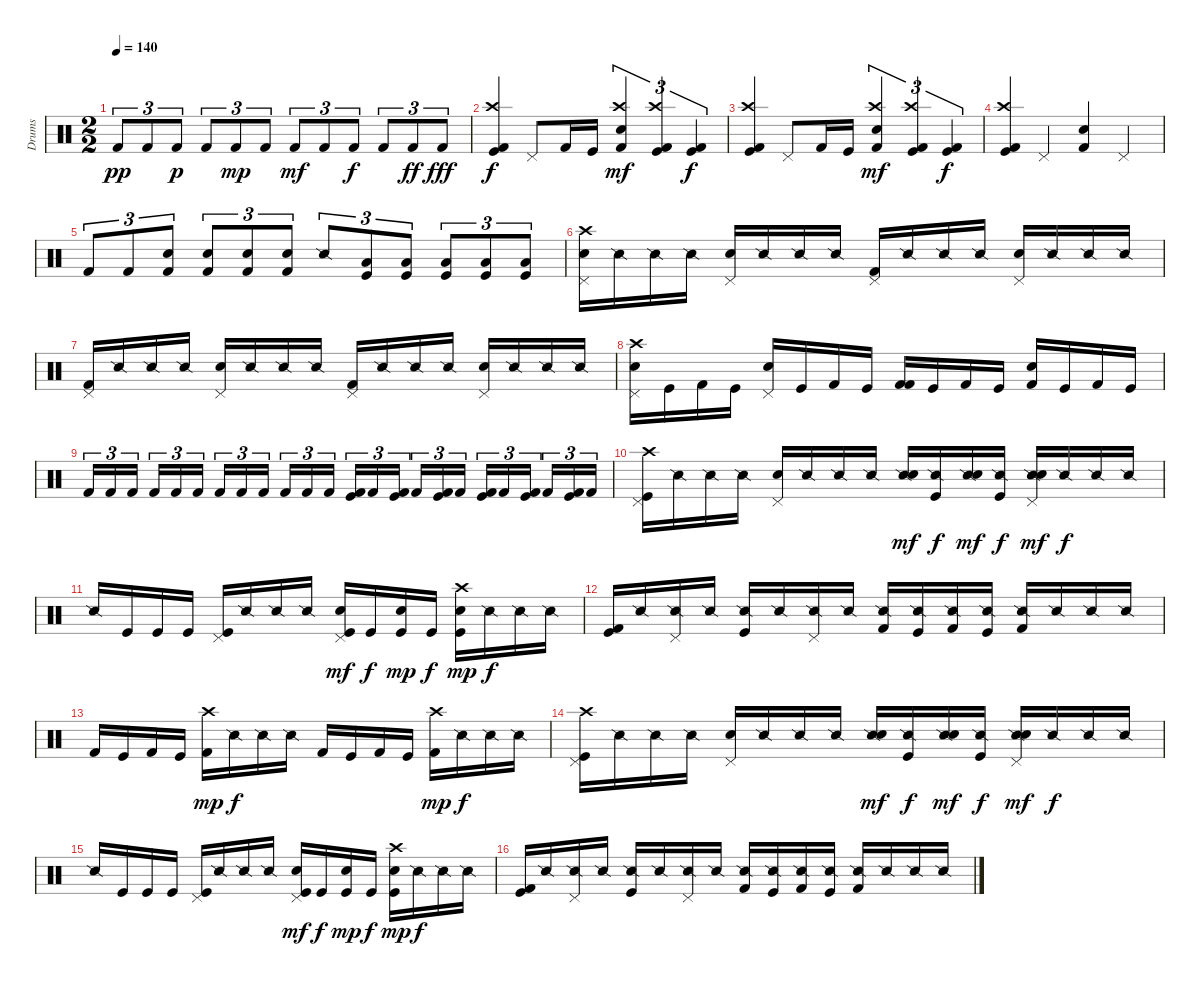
\track ("Drums" "Drums") {instrument percussion}
\staff {score}
\articulation defaults
\ts (2 2)
\tempo 140
\clef neutral
\ks c "Kick (hit) 2".8{tu (3 2) dy pp} "Kick (hit) 2".8{tu (3 2)} "Kick (hit) 2".8{tu (3 2) dy p} "Kick (hit) 2".8{tu (3 2)} "Kick (hit) 2".8{tu (3 2) dy mp} "Kick (hit) 2".8{tu (3 2)} "Kick (hit) 2".8{tu (3 2) dy mf} "Kick (hit) 2".8{tu (3 2)} "Kick (hit) 2".8{tu (3 2) dy f} "Kick (hit) 2".8{tu (3 2)} "Kick (hit) 2".8{tu (3 2) dy ff} "Kick (hit) 2".8{tu (3 2) dy fff}
|
("Kick (hit) 2" "Crash high (hit)" "Kick (hit)").4{dy f} "Pedal Hi-Hat (hit)".8 "Kick (hit) 2".16 "Kick (hit)".16 ("Kick (hit) 2" "Snare (hit) 2" "Crash high (hit)").4{tu (3 2) dy mf} ("Kick (hit) 2" "Kick (hit)" "Crash high (hit)").4{tu (3 2)} ("Kick (hit) 2" "Kick (hit)").4{tu (3 2) dy f} |
("Kick (hit) 2" "Crash high (hit)" "Kick (hit)").4 "Pedal Hi-Hat (hit)".8 "Kick (hit) 2".16 "Kick (hit)".16 ("Kick (hit) 2" "Snare (hit) 2" "Crash high (hit)").4{tu (3 2) dy mf} ("Kick (hit) 2" "Kick (hit)" "Crash high (hit)").4{tu (3 2)} ("Kick (hit) 2" "Kick (hit)").4{tu (3 2) dy f} |
("Kick (hit) 2" "Kick (hit)" "Crash high (hit)").4 "Pedal Hi-Hat (hit)".4 ("Kick (hit) 2" "Snare (hit) 2").4 "Pedal Hi-Hat (hit)".4 |
"Kick (hit) 2".8{tu (3 2)} "Kick (hit) 2".8{tu (3 2)} ("Kick (hit) 2" "Electric Snare (hit)").8{tu (3 2)} ("Kick (hit) 2" "Electric Snare (hit)").8{tu (3 2)} ("Kick (hit) 2" "Electric Snare (hit)").8{tu (3 2)} ("Kick (hit) 2" "Electric Snare (hit)").8{tu (3 2)} "Snare (side stick) 2".8{tu (3 2)} ("Kick (hit)" "Low Tom (hit)").8{tu (3 2)} ("Kick (hit)" "Low Tom (hit)").8{tu (3 2)} ("Kick (hit)" "Low Tom (hit)").8{tu (3 2)} ("Kick (hit)" "Low Tom (hit)").8{tu (3 2)} ("Kick (hit)" "Low Tom (hit)").8{tu (3 2)} |
("Pedal Hi-Hat (hit)" "Snare (hit) 2" "Crash high (hit)").16 "Snare (side stick) 2".16 "Snare (side stick) 2".16 "Snare (side stick) 2".16 ("Pedal Hi-Hat (hit)" "Snare (hit) 2").16 "Snare (side stick) 2".16 "Snare (side stick) 2".16 "Snare (side stick) 2".16 ("Pedal Hi-Hat (hit)" "Kick (hit) 2").16 "Snare (side stick) 2".16 "Snare (side stick) 2".16 "Snare (side stick) 2".16 ("Pedal Hi-Hat (hit)" "Snare (hit) 2").16 "Snare (side stick) 2".16 "Snare (side stick) 2".16 "Snare (side stick) 2".16 |
("Pedal Hi-Hat (hit)" "Kick (hit) 2").16 "Snare (side stick) 2".16 "Snare (side stick) 2".16 "Snare (side stick) 2".16 ("Pedal Hi-Hat (hit)" "Snare (hit) 2").16 "Snare (side stick) 2".16 "Snare (side stick) 2".16 "Snare (side stick) 2".16 ("Pedal Hi-Hat (hit)" "Kick (hit) 2").16 "Snare (side stick) 2".16 "Snare (side stick) 2".16 "Snare (side stick) 2".16 ("Pedal Hi-Hat (hit)" "Snare (hit) 2").16 "Snare (side stick) 2".16 "Snare (side stick) 2".16 "Snare (side stick) 2".16 |
("Pedal Hi-Hat (hit)" "Snare (hit) 2" "Crash high (hit)").16 "Kick (hit)".16 "Kick (hit) 2".16 "Kick (hit)".16 ("Pedal Hi-Hat (hit)" "Snare (hit) 2").16 "Kick (hit)".16 "Kick (hit) 2".16 "Kick (hit)".16 ("Kick (hit) 2" "Kick (hit) 2").16 "Kick (hit)".16 "Kick (hit) 2".16 "Kick (hit)".16 ("Kick (hit) 2" "Snare (hit) 2").16 "Kick (hit)".16 "Kick (hit) 2".16 "Kick (hit)".16 |
"Kick (hit) 2".16{tu (3 2)} "Kick (hit) 2".16{tu (3 2)} "Kick (hit) 2".16{tu (3 2)} "Kick (hit) 2".16{tu (3 2)} "Kick (hit) 2".16{tu (3 2)} "Kick (hit) 2".16{tu (3 2)} "Kick (hit) 2".16{tu (3 2)} "Kick (hit) 2".16{tu (3 2)} "Kick (hit) 2".16{tu (3 2)} "Kick (hit) 2".16{tu (3 2)} "Kick (hit) 2".16{tu (3 2)} "Kick (hit) 2".16{tu (3 2)} ("Kick (hit) 2" "Kick (hit)").16{tu (3 2)} "Kick (hit) 2".16{tu (3 2)} ("Kick (hit) 2" "Kick (hit)").16{tu (3 2)} "Kick (hit) 2".16{tu (3 2)} ("Kick (hit) 2" "Kick (hit)").16{tu (3 2)} "Kick (hit) 2".16{tu (3 2)} ("Kick (hit) 2" "Kick (hit)").16{tu (3 2)} "Kick (hit) 2".16{tu (3 2)} ("Kick (hit) 2" "Kick (hit)").16{tu (3 2)} "Kick (hit) 2".16{tu (3 2)} ("Kick (hit) 2" "Kick (hit)").16{tu (3 2)} "Kick (hit) 2".16{tu (3 2)} |
("Pedal Hi-Hat (hit)" "Kick (hit)" "Crash high (hit)").16 "Snare (side stick) 2".16 "Snare (side stick) 2".16 "Snare (side stick) 2".16 ("Pedal Hi-Hat (hit)" "Snare (hit) 2").16 "Snare (side stick) 2".16 "Snare (side stick) 2".16 "Snare (side stick) 2".16 ("Snare (side stick) 2" "Electric Snare (hit)").16{dy mf} ("Snare (side stick) 2" "Kick (hit)").16{dy f} ("Snare (side stick) 2" "Electric Snare (hit)").16{dy mf} ("Snare (side stick) 2" "Kick (hit)").16{dy f} ("Snare (side stick) 2" "Electric Snare (hit)" "Pedal Hi-Hat (hit)").16{dy mf} "Snare (side stick) 2".16{dy f} "Snare (side stick) 2".16 "Snare (side stick) 2".16 |
"Snare (side stick) 2".16 "Kick (hit)".16 "Kick (hit)".16 "Kick (hit)".16 ("Kick (hit)" "Pedal Hi-Hat (hit)").16 "Snare (side stick) 2".16 "Snare (side stick) 2".16 "Snare (side stick) 2".16 ("Kick (hit)" "Electric Snare (hit)" "Pedal Hi-Hat (hit)").16{dy mf} "Kick (hit)".16{dy f} ("Kick (hit)" "Electric Snare (hit)").16{dy mp} "Kick (hit)".16{dy f} ("Kick (hit)" "Electric Snare (hit)" "Crash high (hit)").16{dy mp} "Snare (side stick) 2".16{dy f} "Snare (side stick) 2".16 "Snare (side stick) 2".16 |
("Kick (hit)" "Kick (hit) 2").16 "Snare (side stick) 2".16 ("Snare (side stick) 2" "Pedal Hi-Hat (hit)").16 "Snare (side stick) 2".16 ("Snare (side stick) 2" "Kick (hit)").16 "Snare (side stick) 2".16 ("Snare (side stick) 2" "Pedal Hi-Hat (hit)").16 "Snare (side stick) 2".16 ("Snare (side stick) 2" "Kick (hit) 2").16 ("Snare (side stick) 2" "Kick (hit)").16 ("Snare (side stick) 2" "Kick (hit) 2").16 ("Snare (side stick) 2" "Kick (hit)").16 ("Snare (side stick) 2" "Kick (hit) 2").16 "Snare (side stick) 2".16 "Snare (side stick) 2".16 "Snare (side stick) 2".16 |
"Kick (hit) 2".16 "Kick (hit)".16 "Kick (hit) 2".16 "Kick (hit)".16 ("Kick (hit) 2" "Crash high (hit)").16{dy mp} "Snare (side stick) 2".16{dy f} "Snare (side stick) 2".16 "Snare (side stick) 2".16 "Kick (hit) 2".16 "Kick (hit)".16 "Kick (hit) 2".16 "Kick (hit)".16 ("Kick (hit) 2" "Crash high (hit)").16{dy mp} "Snare (side stick) 2".16{dy f} "Snare (side stick) 2".16 "Snare (side stick) 2".16 |
("Pedal Hi-Hat (hit)" "Kick (hit)" "Crash high (hit)").16 "Snare (side stick) 2".16 "Snare (side stick) 2".16 "Snare (side stick) 2".16 ("Pedal Hi-Hat (hit)" "Snare (hit) 2").16 "Snare (side stick) 2".16 "Snare (side stick) 2".16 "Snare (side stick) 2".16 ("Snare (side stick) 2" "Electric Snare (hit)").16{dy mf} ("Snare (side stick) 2" "Kick (hit)").16{dy f} ("Snare (side stick) 2" "Electric Snare (hit)").16{dy mf} ("Snare (side stick) 2" "Kick (hit)").16{dy f} ("Snare (side stick) 2" "Electric Snare (hit)" "Pedal Hi-Hat (hit)").16{dy mf} "Snare (side stick) 2".16{dy f} "Snare (side stick) 2".16 "Snare (side stick) 2".16 |
"Snare (side stick) 2".16 "Kick (hit)".16 "Kick (hit)".16 "Kick (hit)".16 ("Kick (hit)" "Pedal Hi-Hat (hit)").16 "Snare (side stick) 2".16 "Snare (side stick) 2".16 "Snare (side stick) 2".16 ("Kick (hit)" "Electric Snare (hit)" "Pedal Hi-Hat (hit)").16{dy mf} "Kick (hit)".16{dy f} ("Kick (hit)" "Electric Snare (hit)").16{dy mp} "Kick (hit)".16{dy f} ("Kick (hit)" "Electric Snare (hit)" "Crash high (hit)").16{dy mp} "Snare (side stick) 2".16{dy f} "Snare (side stick) 2".16 "Snare (side stick) 2".16 |
("Kick (hit)" "Kick (hit) 2").16 "Snare (side stick) 2".16 ("Snare (side stick) 2" "Pedal Hi-Hat (hit)").16 "Snare (side stick) 2".16 ("Snare (side stick) 2" "Kick (hit)").16 "Snare (side stick) 2".16 ("Snare (side stick) 2" "Pedal Hi-Hat (hit)").16 "Snare (side stick) 2".16 ("Snare (side stick) 2" "Kick (hit) 2").16 ("Snare (side stick) 2" "Kick (hit)").16 ("Snare (side stick) 2" "Kick (hit) 2").16 ("Snare (side stick) 2" "Kick (hit)").16 ("Snare (side stick) 2" "Kick (hit) 2").16 "Snare (side stick) 2".16 "Snare (side stick) 2".16 "Snare (side stick) 2".16
